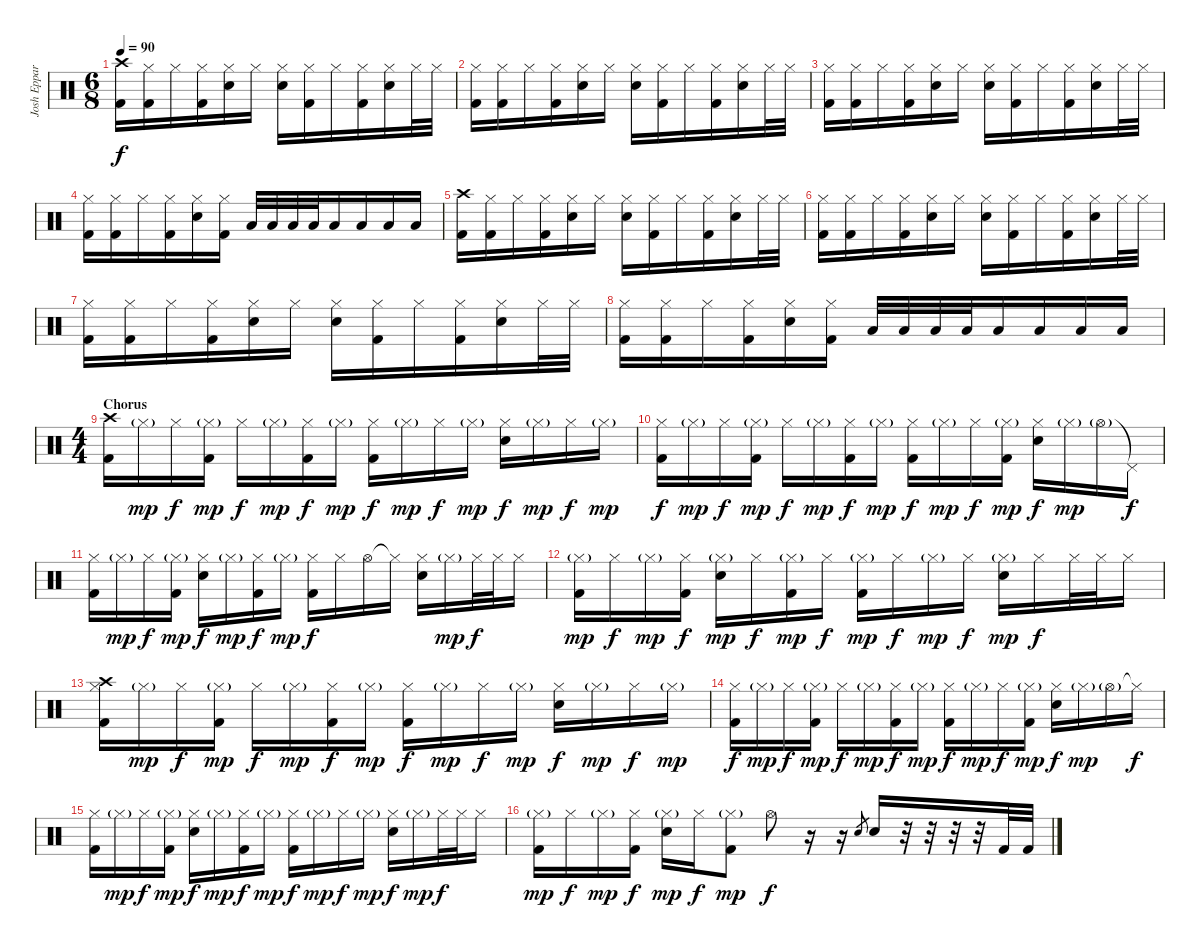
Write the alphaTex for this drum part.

\track ("Josh Eppard" "Josh Eppar") {instrument percussion}
\staff {score}
\articulation defaults
\ts (6 8)
\tempo 90
\clef neutral
\ks c
("Crash high (hit)" "Kick (hit) 2").16{dy f} ("Hi-Hat (closed)" "Kick (hit) 2").16 "Hi-Hat (closed)".16 ("Hi-Hat (closed)" "Kick (hit) 2").16 ("Hi-Hat (closed)" "Electric Snare (hit)").16 "Hi-Hat (closed)".16 ("Hi-Hat (closed)" "Electric Snare (hit)").16 ("Hi-Hat (closed)" "Kick (hit) 2").16 "Hi-Hat (closed)".16 ("Hi-Hat (closed)" "Kick (hit) 2").16 ("Hi-Hat (closed)" "Electric Snare (hit)").16 "Hi-Hat (closed)".32 "Hi-Hat (closed)".32 |
("Hi-Hat (closed)" "Kick (hit) 2").16 ("Hi-Hat (closed)" "Kick (hit) 2").16 "Hi-Hat (closed)".16 ("Hi-Hat (closed)" "Kick (hit) 2").16 ("Hi-Hat (closed)" "Electric Snare (hit)").16 "Hi-Hat (closed)".16 ("Hi-Hat (closed)" "Electric Snare (hit)").16 ("Hi-Hat (closed)" "Kick (hit) 2").16 "Hi-Hat (closed)".16 ("Hi-Hat (closed)" "Kick (hit) 2").16 ("Hi-Hat (closed)" "Electric Snare (hit)").16 "Hi-Hat (closed)".32 "Hi-Hat (closed)".32 |
("Hi-Hat (closed)" "Kick (hit) 2").16 ("Hi-Hat (closed)" "Kick (hit) 2").16 "Hi-Hat (closed)".16 ("Hi-Hat (closed)" "Kick (hit) 2").16 ("Hi-Hat (closed)" "Electric Snare (hit)").16 "Hi-Hat (closed)".16 ("Hi-Hat (closed)" "Electric Snare (hit)").16 ("Hi-Hat (closed)" "Kick (hit) 2").16 "Hi-Hat (closed)".16 ("Hi-Hat (closed)" "Kick (hit) 2").16 ("Hi-Hat (closed)" "Electric Snare (hit)").16 "Hi-Hat (closed)".32 "Hi-Hat (closed)".32 |
("Hi-Hat (closed)" "Kick (hit) 2").16 ("Hi-Hat (closed)" "Kick (hit) 2").16 "Hi-Hat (closed)".16 ("Hi-Hat (closed)" "Kick (hit) 2").16 ("Hi-Hat (closed)" "Electric Snare (hit)").16 ("Hi-Hat (closed)" "Kick (hit) 2").16 "Low Floor Tom (hit)".32 "Low Floor Tom (hit)".32 "Low Floor Tom (hit)".32 "Low Floor Tom (hit)".32 "Low Floor Tom (hit)".16 "Low Floor Tom (hit)".16 "Low Floor Tom (hit)".16 "Low Floor Tom (hit)".16 |
("Crash high (hit)" "Kick (hit) 2").16 ("Hi-Hat (closed)" "Kick (hit) 2").16 "Hi-Hat (closed)".16 ("Hi-Hat (closed)" "Kick (hit) 2").16 ("Hi-Hat (closed)" "Electric Snare (hit)").16 "Hi-Hat (closed)".16 ("Hi-Hat (closed)" "Electric Snare (hit)").16 ("Hi-Hat (closed)" "Kick (hit) 2").16 "Hi-Hat (closed)".16 ("Hi-Hat (closed)" "Kick (hit) 2").16 ("Hi-Hat (closed)" "Electric Snare (hit)").16 "Hi-Hat (closed)".32 "Hi-Hat (closed)".32 |
("Hi-Hat (closed)" "Kick (hit) 2").16 ("Hi-Hat (closed)" "Kick (hit) 2").16 "Hi-Hat (closed)".16 ("Hi-Hat (closed)" "Kick (hit) 2").16 ("Hi-Hat (closed)" "Electric Snare (hit)").16 "Hi-Hat (closed)".16 ("Hi-Hat (closed)" "Electric Snare (hit)").16 ("Hi-Hat (closed)" "Kick (hit) 2").16 "Hi-Hat (closed)".16 ("Hi-Hat (closed)" "Kick (hit) 2").16 ("Hi-Hat (closed)" "Electric Snare (hit)").16 "Hi-Hat (closed)".32 "Hi-Hat (closed)".32 |
("Hi-Hat (closed)" "Kick (hit) 2").16 ("Hi-Hat (closed)" "Kick (hit) 2").16 "Hi-Hat (closed)".16 ("Hi-Hat (closed)" "Kick (hit) 2").16 ("Hi-Hat (closed)" "Electric Snare (hit)").16 "Hi-Hat (closed)".16 ("Hi-Hat (closed)" "Electric Snare (hit)").16 ("Hi-Hat (closed)" "Kick (hit) 2").16 "Hi-Hat (closed)".16 ("Hi-Hat (closed)" "Kick (hit) 2").16 ("Hi-Hat (closed)" "Electric Snare (hit)").16 "Hi-Hat (closed)".32 "Hi-Hat (closed)".32 |
("Hi-Hat (closed)" "Kick (hit) 2").16 ("Hi-Hat (closed)" "Kick (hit) 2").16 "Hi-Hat (closed)".16 ("Hi-Hat (closed)" "Kick (hit) 2").16 ("Hi-Hat (closed)" "Electric Snare (hit)").16 ("Hi-Hat (closed)" "Kick (hit) 2").16 "Low Floor Tom (hit)".32 "Low Floor Tom (hit)".32 "Low Floor Tom (hit)".32 "Low Floor Tom (hit)".32 "Low Floor Tom (hit)".16 "Low Floor Tom (hit)".16 "Low Floor Tom (hit)".16 "Low Floor Tom (hit)".16 |
\ts (4 4)
\section ("" "Chorus")
("Crash high (hit)" "Kick (hit) 2").16 "Hi-Hat (closed)"{g}.16{dy mp} "Hi-Hat (closed)".16{dy f} ("Hi-Hat (closed)"{g} "Kick (hit) 2").16{dy mp} "Hi-Hat (closed)".16{dy f} "Hi-Hat (closed)"{g}.16{dy mp} ("Hi-Hat (closed)" "Kick (hit) 2").16{dy f} "Hi-Hat (closed)"{g}.16{dy mp} ("Hi-Hat (closed)" "Kick (hit) 2").16{dy f} "Hi-Hat (closed)"{g}.16{dy mp} "Hi-Hat (closed)".16{dy f} "Hi-Hat (closed)"{g}.16{dy mp} ("Hi-Hat (closed)" "Electric Snare (hit)").16{dy f} "Hi-Hat (closed)"{g}.16{dy mp} "Hi-Hat (closed)".16{dy f} "Hi-Hat (closed)"{g}.16{dy mp} |
("Hi-Hat (closed)" "Kick (hit) 2").16{dy f} "Hi-Hat (closed)"{g}.16{dy mp} "Hi-Hat (closed)".16{dy f} ("Hi-Hat (closed)"{g} "Kick (hit) 2").16{dy mp} "Hi-Hat (closed)".16{dy f} "Hi-Hat (closed)"{g}.16{dy mp} ("Hi-Hat (closed)" "Kick (hit) 2").16{dy f} "Hi-Hat (closed)"{g}.16{dy mp} ("Hi-Hat (closed)" "Kick (hit) 2").16{dy f} "Hi-Hat (closed)"{g}.16{dy mp} "Hi-Hat (closed)".16{dy f} ("Hi-Hat (closed)"{g} "Kick (hit) 2").16{dy mp} ("Hi-Hat (closed)" "Electric Snare (hit)").16{dy f} "Hi-Hat (closed)"{g}.16{dy mp} "Hi-Hat (open)"{g}.16 "Pedal Hi-Hat (hit)"{t}.16{dy f} |
("Hi-Hat (closed)" "Kick (hit) 2").16 "Hi-Hat (closed)"{g}.16{dy mp} "Hi-Hat (closed)".16{dy f} ("Hi-Hat (closed)"{g} "Kick (hit) 2").16{dy mp} ("Hi-Hat (closed)" "Electric Snare (hit)").16{dy f} "Hi-Hat (closed)"{g}.16{dy mp} ("Hi-Hat (closed)" "Kick (hit) 2").16{dy f} "Hi-Hat (closed)"{g}.16{dy mp} ("Hi-Hat (closed)" "Kick (hit) 2").16{dy f} "Hi-Hat (closed)".16 "Hi-Hat (open)".16 "Hi-Hat (closed)"{t}.16 ("Hi-Hat (closed)" "Electric Snare (hit)").16 "Hi-Hat (closed)"{g}.16{dy mp} "Hi-Hat (closed)".32{dy f} "Hi-Hat (closed)".32 "Hi-Hat (closed)".16 |
("Hi-Hat (closed)"{g} "Kick (hit) 2").16{dy mp} "Hi-Hat (closed)".16{dy f} "Hi-Hat (closed)"{g}.16{dy mp} ("Hi-Hat (closed)" "Kick (hit) 2").16{dy f} ("Hi-Hat (closed)"{g} "Electric Snare (hit)").16{dy mp} "Hi-Hat (closed)".16{dy f} ("Hi-Hat (closed)"{g} "Kick (hit) 2").16{dy mp} "Hi-Hat (closed)".16{dy f} ("Hi-Hat (closed)"{g} "Kick (hit) 2").16{dy mp} "Hi-Hat (closed)".16{dy f} "Hi-Hat (closed)"{g}.16{dy mp} "Hi-Hat (closed)".16{dy f} ("Hi-Hat (closed)"{g} "Electric Snare (hit)").16{dy mp} "Hi-Hat (closed)".16{dy f} "Hi-Hat (closed)".32 "Hi-Hat (closed)".32 "Hi-Hat (closed)".16 |
("Crash high (hit)" "Hi-Hat (closed)" "Kick (hit) 2").16 "Hi-Hat (closed)"{g}.16{dy mp} "Hi-Hat (closed)".16{dy f} ("Hi-Hat (closed)"{g} "Kick (hit) 2").16{dy mp} "Hi-Hat (closed)".16{dy f} "Hi-Hat (closed)"{g}.16{dy mp} ("Hi-Hat (closed)" "Kick (hit) 2").16{dy f} "Hi-Hat (closed)"{g}.16{dy mp} ("Hi-Hat (closed)" "Kick (hit) 2").16{dy f} "Hi-Hat (closed)"{g}.16{dy mp} "Hi-Hat (closed)".16{dy f} "Hi-Hat (closed)"{g}.16{dy mp} ("Hi-Hat (closed)" "Electric Snare (hit)").16{dy f} "Hi-Hat (closed)"{g}.16{dy mp} "Hi-Hat (closed)".16{dy f} "Hi-Hat (closed)"{g}.16{dy mp} |
("Hi-Hat (closed)" "Kick (hit) 2").16{dy f} "Hi-Hat (closed)"{g}.16{dy mp} "Hi-Hat (closed)".16{dy f} ("Hi-Hat (closed)"{g} "Kick (hit) 2").16{dy mp} "Hi-Hat (closed)".16{dy f} "Hi-Hat (closed)"{g}.16{dy mp} ("Hi-Hat (closed)" "Kick (hit) 2").16{dy f} "Hi-Hat (closed)"{g}.16{dy mp} ("Hi-Hat (closed)" "Kick (hit) 2").16{dy f} "Hi-Hat (closed)"{g}.16{dy mp} "Hi-Hat (closed)".16{dy f} ("Hi-Hat (closed)"{g} "Kick (hit) 2").16{dy mp} ("Hi-Hat (closed)" "Electric Snare (hit)").16{dy f} "Hi-Hat (closed)"{g}.16{dy mp} "Hi-Hat (open)"{g}.16 "Hi-Hat (closed)"{t}.16{dy f} |
("Hi-Hat (closed)" "Kick (hit) 2").16 "Hi-Hat (closed)"{g}.16{dy mp} "Hi-Hat (closed)".16{dy f} ("Hi-Hat (closed)"{g} "Kick (hit) 2").16{dy mp} ("Hi-Hat (closed)" "Electric Snare (hit)").16{dy f} "Hi-Hat (closed)"{g}.16{dy mp} ("Hi-Hat (closed)" "Kick (hit) 2").16{dy f} "Hi-Hat (closed)"{g}.16{dy mp} ("Hi-Hat (closed)" "Kick (hit) 2").16{dy f} "Hi-Hat (closed)"{g}.16{dy mp} "Hi-Hat (closed)".16{dy f} "Hi-Hat (closed)"{g}.16{dy mp} ("Hi-Hat (closed)" "Electric Snare (hit)").16{dy f} "Hi-Hat (closed)"{g}.16{dy mp} "Hi-Hat (closed)".32{dy f} "Hi-Hat (closed)".32 "Hi-Hat (closed)".16 |
("Hi-Hat (closed)"{g} "Kick (hit) 2").16{dy mp} "Hi-Hat (closed)".16{dy f} "Hi-Hat (closed)"{g}.16{dy mp} ("Hi-Hat (closed)" "Kick (hit) 2").16{dy f} ("Hi-Hat (closed)"{g} "Electric Snare (hit)").16{dy mp} "Hi-Hat (closed)".16{dy f} ("Hi-Hat (closed)"{g} "Kick (hit) 2").8{dy mp} "Hi-Hat (open)".8{dy f} r.16 r.16 "Electric Snare (hit)".8{gr} "Electric Snare (hit)".16 r.32 r.32 r.32 r.32 "Kick (hit) 2".32 "Kick (hit) 2".32
